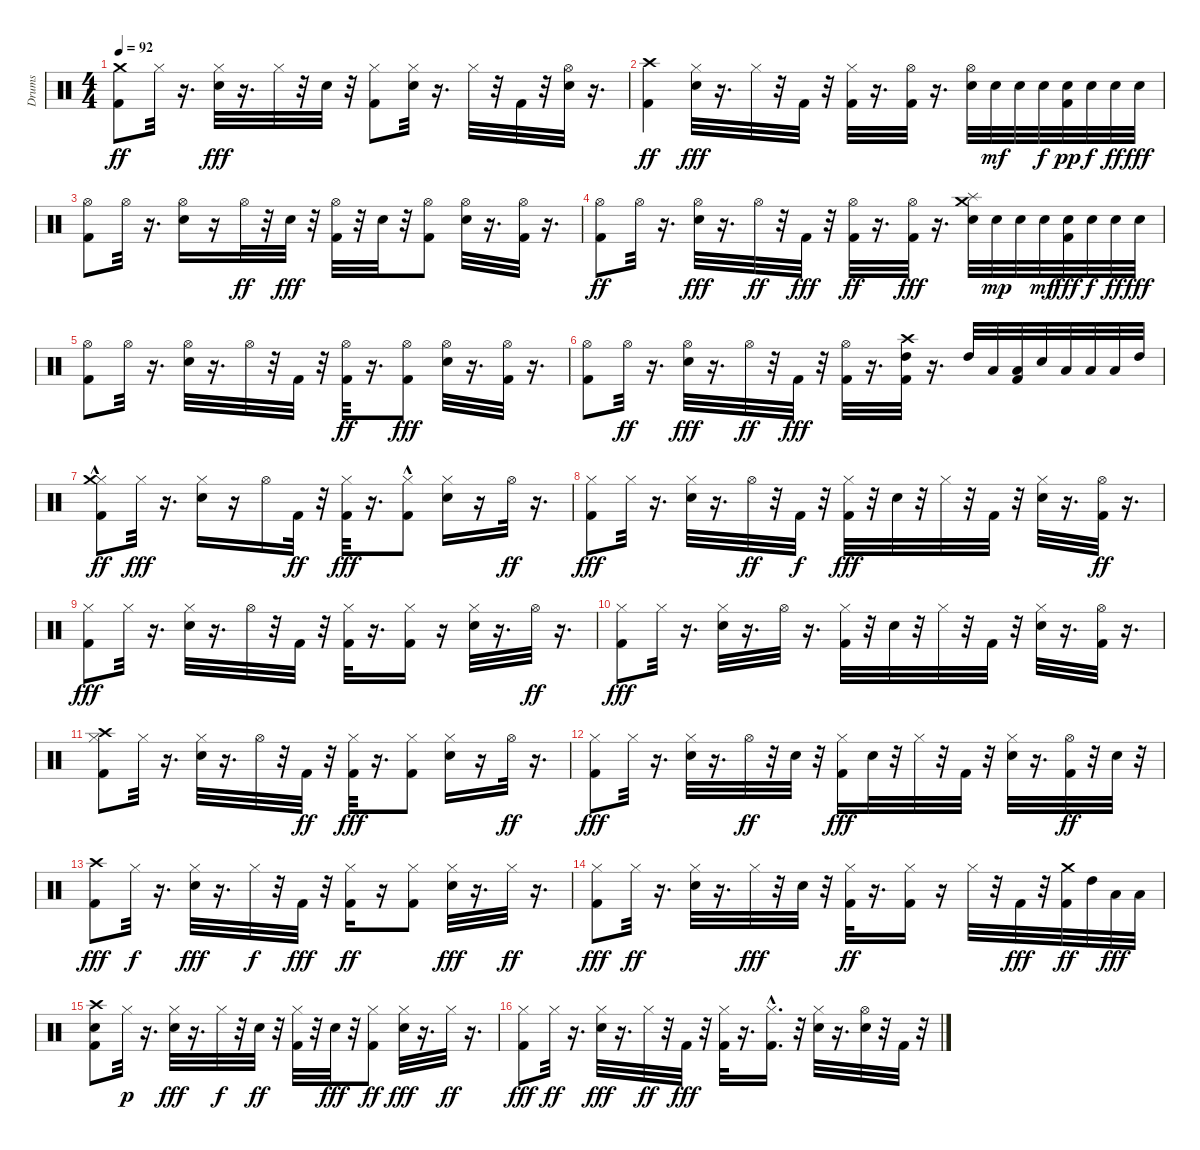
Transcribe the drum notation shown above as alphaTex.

\track ("Drums" "Drums") {instrument percussion}
\staff {score}
\articulation defaults
\ts (4 4)
\tempo 92
\clef neutral
\ks c
("Kick (hit) 2" "Crash medium (hit)").8{dy ff} "Hi-Hat (closed)".32 r.16{d} ("Snare (hit) 2" "Hi-Hat (closed)").32{dy fff} r.16{d} "Hi-Hat (closed)".32 r.32 "Snare (hit) 2".32 r.32 ("Kick (hit) 2" "Hi-Hat (closed)").8 ("Snare (hit) 2" "Hi-Hat (closed)").32 r.16{d} "Hi-Hat (closed)".32 r.32 "Kick (hit) 2".32 r.32 ("Snare (hit) 2" "Hi-Hat (open)").32 r.16{d} |
("Kick (hit) 2" "Crash high (hit)").4{dy ff} ("Snare (hit) 2" "Hi-Hat (closed)").32{dy fff} r.16{d} "Hi-Hat (closed)".32 r.32 "Kick (hit) 2".32 r.32 ("Kick (hit) 2" "Hi-Hat (closed)").32 r.16{d} ("Kick (hit) 2" "Hi-Hat (open)").32 r.16{d} ("Snare (hit) 2" "Hi-Hat (open)").32 "Snare (hit) 2".32{dy mf} "Snare (hit) 2".32 "Snare (hit) 2".32{dy f} ("Kick (hit) 2" "Snare (hit) 2").32{dy pp} "Snare (hit) 2".32{dy f} "Snare (hit) 2".32{dy ff} "Snare (hit) 2".32{dy fff} |
("Kick (hit) 2" "Hi-Hat (open)").8 "Hi-Hat (open)".32 r.16{d} ("Snare (hit) 2" "Hi-Hat (open)").16 r.16 "Hi-Hat (open)".32{dy ff} r.32 "Snare (hit) 2".32{dy fff} r.32 ("Kick (hit) 2" "Hi-Hat (open)").32 r.32 "Snare (hit) 2".32 r.32 ("Kick (hit) 2" "Hi-Hat (open)").8 ("Snare (hit) 2" "Hi-Hat (open)").32 r.16{d} ("Kick (hit) 2" "Hi-Hat (open)").32 r.16{d} |
("Kick (hit) 2" "Hi-Hat (open)").8{dy ff} "Hi-Hat (open)".32 r.16{d} ("Snare (hit) 2" "Hi-Hat (open)").32{dy fff} r.16{d} "Hi-Hat (open)".32{dy ff} r.32 "Kick (hit) 2".32{dy fff} r.32 ("Kick (hit) 2" "Hi-Hat (open)").32{dy ff} r.16{d} ("Kick (hit) 2" "Hi-Hat (open)").32{dy fff} r.16{d} ("Snare (hit) 2" "Splash (hit)" "Crash medium (hit)").32 "Snare (hit) 2".32{dy mp} "Snare (hit) 2".32 "Snare (hit) 2".32{dy mf} ("Kick (hit) 2" "Snare (hit) 2").32{dy fff} "Snare (hit) 2".32{dy f} "Snare (hit) 2".32{dy ff} "Snare (hit) 2".32{dy fff} |
("Kick (hit) 2" "Hi-Hat (open)").8 "Hi-Hat (open)".32 r.16{d} ("Snare (hit) 2" "Hi-Hat (open)").32 r.16{d} "Hi-Hat (open)".32 r.32 "Kick (hit) 2".32 r.32 ("Kick (hit) 2" "Hi-Hat (open)").32{dy ff} r.16{d} ("Kick (hit) 2" "Hi-Hat (open)").8{dy fff} ("Snare (hit) 2" "Hi-Hat (open)").32 r.16{d} ("Kick (hit) 2" "Hi-Hat (open)").32 r.16{d} |
("Kick (hit) 2" "Hi-Hat (open)").8 "Hi-Hat (open)".32{dy ff} r.16{d} ("Snare (hit) 2" "Hi-Hat (open)").32{dy fff} r.16{d} "Hi-Hat (open)".32{dy ff} r.32 "Kick (hit) 2".32{dy fff} r.32 ("Kick (hit) 2" "Hi-Hat (open)").32 r.16{d} ("Kick (hit) 2" "High Tom (hit)" "Crash high (hit)").32 r.16{d} "High Tom (hit)".32 "Low Tom (hit)".32 ("Kick (hit) 2" "Low Floor Tom (hit)").32 "Snare (hit) 2".32 "Low Floor Tom (hit)".32 "Low Tom (hit)".32 "Low Floor Tom (hit)".32 "High Tom (hit)".32 |
("Kick (hit) 2" "Hi-Hat (closed)" "Crash medium (hit)"{hac}).8{dy ff} "Hi-Hat (closed)".32{dy fff} r.16{d} ("Snare (hit) 2" "Hi-Hat (closed)").16 r.16 "Hi-Hat (open)".16 "Kick (hit) 2".32{dy ff} r.32 ("Kick (hit) 2" "Hi-Hat (closed)").32{dy fff} r.16{d} ("Kick (hit) 2"{hac} "Hi-Hat (closed)").8 ("Snare (hit) 2" "Hi-Hat (closed)").16 r.16 "Hi-Hat (open)".32{dy ff} r.16{d} |
("Kick (hit) 2" "Hi-Hat (closed)").8{dy fff} "Hi-Hat (closed)".32 r.16{d} ("Snare (hit) 2" "Hi-Hat (closed)").32 r.16{d} "Hi-Hat (open)".32{dy ff} r.32 "Kick (hit) 2".32{dy f} r.32 ("Kick (hit) 2" "Hi-Hat (closed)").32{dy fff} r.32 "Snare (hit) 2".32 r.32 "Hi-Hat (closed)".32 r.32 "Kick (hit) 2".32 r.32 ("Snare (hit) 2" "Hi-Hat (closed)").32 r.16{d} ("Kick (hit) 2" "Hi-Hat (open)").32{dy ff} r.16{d} |
("Kick (hit) 2" "Hi-Hat (closed)").8{dy fff} "Hi-Hat (closed)".32 r.16{d} ("Snare (hit) 2" "Hi-Hat (closed)").32 r.16{d} "Hi-Hat (open)".32 r.32 "Kick (hit) 2".32 r.32 ("Kick (hit) 2" "Hi-Hat (closed)").32 r.16{d} ("Kick (hit) 2" "Hi-Hat (closed)").16 r.16 ("Snare (hit) 2" "Hi-Hat (closed)").32 r.16{d} "Hi-Hat (open)".32{dy ff} r.16{d} |
("Kick (hit) 2" "Hi-Hat (closed)").8{dy fff} "Hi-Hat (closed)".32 r.16{d} ("Snare (hit) 2" "Hi-Hat (closed)").32 r.16{d} "Hi-Hat (open)".32 r.16{d} ("Kick (hit) 2" "Hi-Hat (closed)").32 r.32 "Snare (hit) 2".32 r.32 "Hi-Hat (closed)".32 r.32 "Kick (hit) 2".32 r.32 ("Snare (hit) 2" "Hi-Hat (closed)").32 r.16{d} ("Kick (hit) 2" "Hi-Hat (open)").32 r.16{d} |
("Kick (hit) 2" "Hi-Hat (closed)" "Crash high (hit)").8 "Hi-Hat (closed)".32 r.16{d} ("Snare (hit) 2" "Hi-Hat (closed)").32 r.16{d} "Hi-Hat (open)".32 r.32 "Kick (hit) 2".32{dy ff} r.32 ("Kick (hit) 2" "Hi-Hat (closed)").32{dy fff} r.16{d} ("Kick (hit) 2" "Hi-Hat (closed)").8 ("Snare (hit) 2" "Hi-Hat (closed)").16 r.16 "Hi-Hat (open)".32{dy ff} r.16{d} |
("Kick (hit) 2" "Hi-Hat (closed)").8{dy fff} "Hi-Hat (closed)".32 r.16{d} ("Snare (hit) 2" "Hi-Hat (closed)").32 r.16{d} "Hi-Hat (open)".32{dy ff} r.32 "Snare (hit) 2".32 r.32 ("Kick (hit) 2" "Hi-Hat (closed)").16{dy fff} "Snare (hit) 2".32 r.32 "Hi-Hat (closed)".32 r.32 "Kick (hit) 2".32 r.32 ("Snare (hit) 2" "Hi-Hat (closed)").32 r.16{d} ("Kick (hit) 2" "Hi-Hat (open)").32{dy ff} r.32 "Snare (hit) 2".32 r.32 |
("Kick (hit) 2" "Crash high (hit)").8{dy fff} "Hi-Hat (closed)".32{dy f} r.16{d} ("Snare (hit) 2" "Hi-Hat (closed)").32{dy fff} r.16{d} "Hi-Hat (closed)".32{dy f} r.32 "Kick (hit) 2".32{dy fff} r.32 ("Kick (hit) 2" "Hi-Hat (closed)").16{dy ff} r.16 ("Kick (hit) 2" "Hi-Hat (closed)").8 ("Snare (hit) 2" "Hi-Hat (closed)").32{dy fff} r.16{d} "Hi-Hat (closed)".32{dy ff} r.16{d} |
("Kick (hit) 2" "Hi-Hat (closed)").8{dy fff} "Hi-Hat (closed)".32{dy ff} r.16{d} ("Snare (hit) 2" "Hi-Hat (closed)").32 r.16{d} "Hi-Hat (closed)".32{dy fff} r.32 "Snare (hit) 2".32 r.32 ("Kick (hit) 2" "Hi-Hat (closed)").32{dy ff} r.16{d} ("Kick (hit) 2" "Hi-Hat (closed)").16 r.16 "Hi-Hat (closed)".32 r.32 "Kick (hit) 2".32{dy fff} r.32 ("Kick (hit) 2" "Crash medium (hit)").32{dy ff} "High Tom (hit)".32 "Low Tom (hit)".32{dy fff} "Low Floor Tom (hit)".32 |
("Kick (hit) 2" "Electric Snare (hit)" "Crash high (hit)").8 "Hi-Hat (closed)".32{dy p} r.16{d} ("Snare (hit) 2" "Hi-Hat (closed)").32{dy fff} r.16{d} "Hi-Hat (closed)".32{dy f} r.32 "Snare (hit) 2".32{dy ff} r.32 ("Kick (hit) 2" "Hi-Hat (closed)").32 r.32 "Snare (hit) 2".32{dy fff} r.32 ("Kick (hit) 2" "Hi-Hat (closed)").8{dy ff} ("Snare (hit) 2" "Hi-Hat (closed)").32{dy fff} r.16{d} "Hi-Hat (closed)".32{dy ff} r.16{d} |
("Kick (hit) 2" "Hi-Hat (closed)").8{dy fff} "Hi-Hat (closed)".32{dy ff} r.16{d} ("Snare (hit) 2" "Hi-Hat (closed)").32{dy fff} r.16{d} "Hi-Hat (closed)".32{dy ff} r.32 "Kick (hit) 2".32{dy fff} r.32 ("Kick (hit) 2" "Hi-Hat (closed)").32 r.16{d} ("Kick (hit) 2"{hac} "Hi-Hat (closed)").16{d} r.32 ("Snare (hit) 2" "Hi-Hat (closed)").32 r.16{d} ("Snare (hit) 2" "Hi-Hat (open)").32 r.32 "Kick (hit) 2".32 r.32
